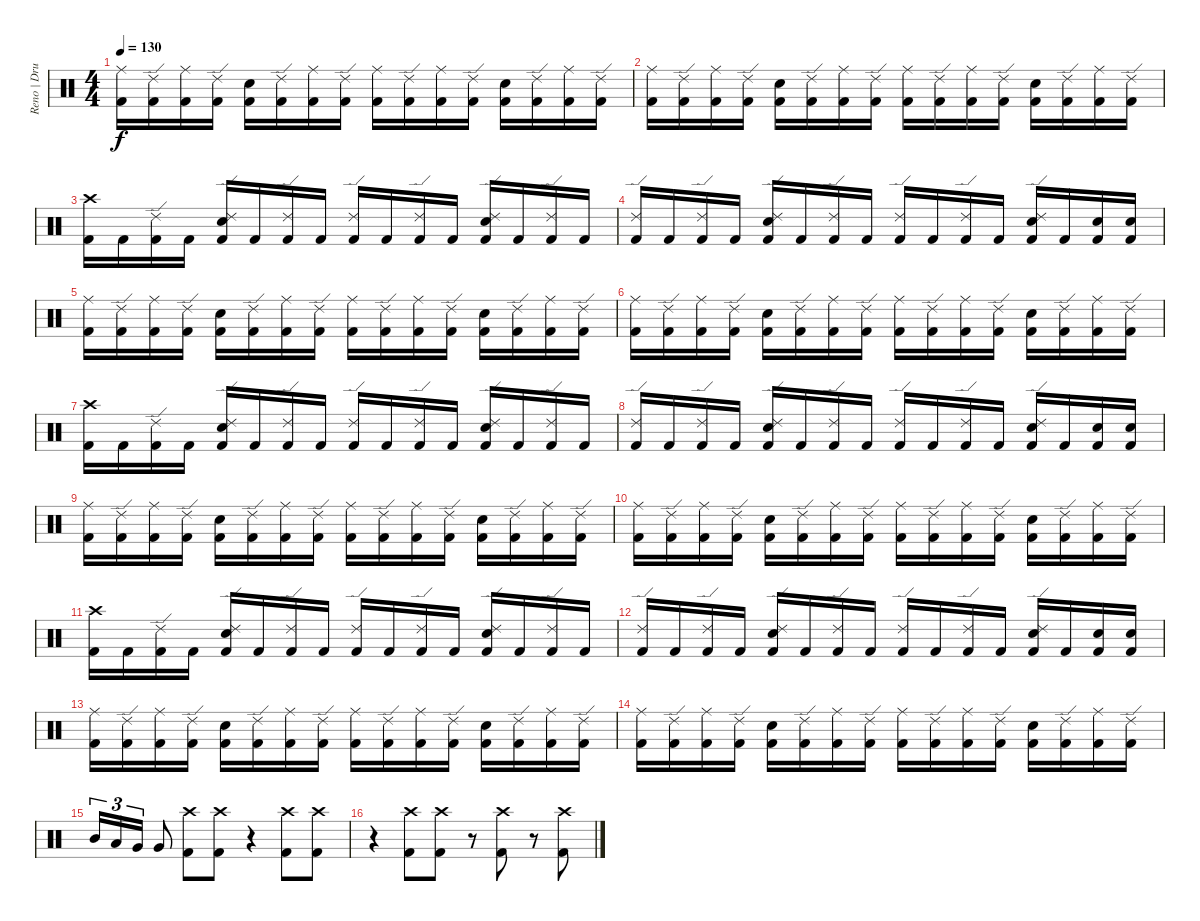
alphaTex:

\track ("Reno | Drums" "Reno | Dru") {instrument percussion}
\staff {score}
\articulation defaults
\ts (4 4)
\tempo 130
\clef neutral
\ks c
("Ride (middle)" "Kick (hit) 2").16{dy f} ("Ride (edge) 2" "Kick (hit) 2").16 ("Ride (middle)" "Kick (hit) 2").16 ("Ride (edge) 2" "Kick (hit) 2").16 ("Electric Snare (hit)" "Kick (hit) 2").16 ("Ride (edge) 2" "Kick (hit) 2").16 ("Ride (middle)" "Kick (hit) 2").16 ("Ride (edge) 2" "Kick (hit) 2").16 ("Ride (middle)" "Kick (hit) 2").16 ("Ride (edge) 2" "Kick (hit) 2").16 ("Ride (middle)" "Kick (hit) 2").16 ("Ride (edge) 2" "Kick (hit) 2").16 ("Electric Snare (hit)" "Kick (hit) 2").16 ("Ride (edge) 2" "Kick (hit) 2").16 ("Ride (middle)" "Kick (hit) 2").16 ("Ride (edge) 2" "Kick (hit) 2").16 |
("Ride (middle)" "Kick (hit) 2").16 ("Ride (edge) 2" "Kick (hit) 2").16 ("Ride (middle)" "Kick (hit) 2").16 ("Ride (edge) 2" "Kick (hit) 2").16 ("Electric Snare (hit)" "Kick (hit) 2").16 ("Ride (edge) 2" "Kick (hit) 2").16 ("Ride (middle)" "Kick (hit) 2").16 ("Ride (edge) 2" "Kick (hit) 2").16 ("Ride (middle)" "Kick (hit) 2").16 ("Ride (edge) 2" "Kick (hit) 2").16 ("Ride (middle)" "Kick (hit) 2").16 ("Ride (edge) 2" "Kick (hit) 2").16 ("Electric Snare (hit)" "Kick (hit) 2").16 ("Ride (edge) 2" "Kick (hit) 2").16 ("Ride (middle)" "Kick (hit) 2").16 ("Ride (edge) 2" "Kick (hit) 2").16 |
("Crash high (hit)" "Kick (hit) 2").16 "Kick (hit) 2".16 ("Ride (edge) 2" "Kick (hit) 2").16 "Kick (hit) 2".16 ("Ride (edge) 2" "Electric Snare (hit)" "Kick (hit) 2").16 "Kick (hit) 2".16 ("Ride (edge) 2" "Kick (hit) 2").16 "Kick (hit) 2".16 ("Ride (edge) 2" "Kick (hit) 2").16 "Kick (hit) 2".16 ("Ride (edge) 2" "Kick (hit) 2").16 "Kick (hit) 2".16 ("Ride (edge) 2" "Electric Snare (hit)" "Kick (hit) 2").16 "Kick (hit) 2".16 ("Ride (edge) 2" "Kick (hit) 2").16 "Kick (hit) 2".16 |
("Ride (edge) 2" "Kick (hit) 2").16 "Kick (hit) 2".16 ("Ride (edge) 2" "Kick (hit) 2").16 "Kick (hit) 2".16 ("Ride (edge) 2" "Electric Snare (hit)" "Kick (hit) 2").16 "Kick (hit) 2".16 ("Ride (edge) 2" "Kick (hit) 2").16 "Kick (hit) 2".16 ("Ride (edge) 2" "Kick (hit) 2").16 "Kick (hit) 2".16 ("Ride (edge) 2" "Kick (hit) 2").16 "Kick (hit) 2".16 ("Ride (edge) 2" "Electric Snare (hit)" "Kick (hit) 2").16 "Kick (hit) 2".16 ("Electric Snare (hit)" "Kick (hit) 2").16 ("Electric Snare (hit)" "Kick (hit) 2").16 |
("Ride (middle)" "Kick (hit) 2").16 ("Ride (edge) 2" "Kick (hit) 2").16 ("Ride (middle)" "Kick (hit) 2").16 ("Ride (edge) 2" "Kick (hit) 2").16 ("Electric Snare (hit)" "Kick (hit) 2").16 ("Ride (edge) 2" "Kick (hit) 2").16 ("Ride (middle)" "Kick (hit) 2").16 ("Ride (edge) 2" "Kick (hit) 2").16 ("Ride (middle)" "Kick (hit) 2").16 ("Ride (edge) 2" "Kick (hit) 2").16 ("Ride (middle)" "Kick (hit) 2").16 ("Ride (edge) 2" "Kick (hit) 2").16 ("Electric Snare (hit)" "Kick (hit) 2").16 ("Ride (edge) 2" "Kick (hit) 2").16 ("Ride (middle)" "Kick (hit) 2").16 ("Ride (edge) 2" "Kick (hit) 2").16 |
("Ride (middle)" "Kick (hit) 2").16 ("Ride (edge) 2" "Kick (hit) 2").16 ("Ride (middle)" "Kick (hit) 2").16 ("Ride (edge) 2" "Kick (hit) 2").16 ("Electric Snare (hit)" "Kick (hit) 2").16 ("Ride (edge) 2" "Kick (hit) 2").16 ("Ride (middle)" "Kick (hit) 2").16 ("Ride (edge) 2" "Kick (hit) 2").16 ("Ride (middle)" "Kick (hit) 2").16 ("Ride (edge) 2" "Kick (hit) 2").16 ("Ride (middle)" "Kick (hit) 2").16 ("Ride (edge) 2" "Kick (hit) 2").16 ("Electric Snare (hit)" "Kick (hit) 2").16 ("Ride (edge) 2" "Kick (hit) 2").16 ("Ride (middle)" "Kick (hit) 2").16 ("Ride (edge) 2" "Kick (hit) 2").16 |
("Crash high (hit)" "Kick (hit) 2").16 "Kick (hit) 2".16 ("Ride (edge) 2" "Kick (hit) 2").16 "Kick (hit) 2".16 ("Ride (edge) 2" "Electric Snare (hit)" "Kick (hit) 2").16 "Kick (hit) 2".16 ("Ride (edge) 2" "Kick (hit) 2").16 "Kick (hit) 2".16 ("Ride (edge) 2" "Kick (hit) 2").16 "Kick (hit) 2".16 ("Ride (edge) 2" "Kick (hit) 2").16 "Kick (hit) 2".16 ("Ride (edge) 2" "Electric Snare (hit)" "Kick (hit) 2").16 "Kick (hit) 2".16 ("Ride (edge) 2" "Kick (hit) 2").16 "Kick (hit) 2".16 |
("Ride (edge) 2" "Kick (hit) 2").16 "Kick (hit) 2".16 ("Ride (edge) 2" "Kick (hit) 2").16 "Kick (hit) 2".16 ("Ride (edge) 2" "Electric Snare (hit)" "Kick (hit) 2").16 "Kick (hit) 2".16 ("Ride (edge) 2" "Kick (hit) 2").16 "Kick (hit) 2".16 ("Ride (edge) 2" "Kick (hit) 2").16 "Kick (hit) 2".16 ("Ride (edge) 2" "Kick (hit) 2").16 "Kick (hit) 2".16 ("Ride (edge) 2" "Electric Snare (hit)" "Kick (hit) 2").16 "Kick (hit) 2".16 ("Electric Snare (hit)" "Kick (hit) 2").16 ("Electric Snare (hit)" "Kick (hit) 2").16 |
("Ride (middle)" "Kick (hit) 2").16 ("Ride (edge) 2" "Kick (hit) 2").16 ("Ride (middle)" "Kick (hit) 2").16 ("Ride (edge) 2" "Kick (hit) 2").16 ("Electric Snare (hit)" "Kick (hit) 2").16 ("Ride (edge) 2" "Kick (hit) 2").16 ("Ride (middle)" "Kick (hit) 2").16 ("Ride (edge) 2" "Kick (hit) 2").16 ("Ride (middle)" "Kick (hit) 2").16 ("Ride (edge) 2" "Kick (hit) 2").16 ("Ride (middle)" "Kick (hit) 2").16 ("Ride (edge) 2" "Kick (hit) 2").16 ("Electric Snare (hit)" "Kick (hit) 2").16 ("Ride (edge) 2" "Kick (hit) 2").16 ("Ride (middle)" "Kick (hit) 2").16 ("Ride (edge) 2" "Kick (hit) 2").16 |
("Ride (middle)" "Kick (hit) 2").16 ("Ride (edge) 2" "Kick (hit) 2").16 ("Ride (middle)" "Kick (hit) 2").16 ("Ride (edge) 2" "Kick (hit) 2").16 ("Electric Snare (hit)" "Kick (hit) 2").16 ("Ride (edge) 2" "Kick (hit) 2").16 ("Ride (middle)" "Kick (hit) 2").16 ("Ride (edge) 2" "Kick (hit) 2").16 ("Ride (middle)" "Kick (hit) 2").16 ("Ride (edge) 2" "Kick (hit) 2").16 ("Ride (middle)" "Kick (hit) 2").16 ("Ride (edge) 2" "Kick (hit) 2").16 ("Electric Snare (hit)" "Kick (hit) 2").16 ("Ride (edge) 2" "Kick (hit) 2").16 ("Ride (middle)" "Kick (hit) 2").16 ("Ride (edge) 2" "Kick (hit) 2").16 |
("Crash high (hit)" "Kick (hit) 2").16 "Kick (hit) 2".16 ("Ride (edge) 2" "Kick (hit) 2").16 "Kick (hit) 2".16 ("Ride (edge) 2" "Electric Snare (hit)" "Kick (hit) 2").16 "Kick (hit) 2".16 ("Ride (edge) 2" "Kick (hit) 2").16 "Kick (hit) 2".16 ("Ride (edge) 2" "Kick (hit) 2").16 "Kick (hit) 2".16 ("Ride (edge) 2" "Kick (hit) 2").16 "Kick (hit) 2".16 ("Ride (edge) 2" "Electric Snare (hit)" "Kick (hit) 2").16 "Kick (hit) 2".16 ("Ride (edge) 2" "Kick (hit) 2").16 "Kick (hit) 2".16 |
("Ride (edge) 2" "Kick (hit) 2").16 "Kick (hit) 2".16 ("Ride (edge) 2" "Kick (hit) 2").16 "Kick (hit) 2".16 ("Ride (edge) 2" "Electric Snare (hit)" "Kick (hit) 2").16 "Kick (hit) 2".16 ("Ride (edge) 2" "Kick (hit) 2").16 "Kick (hit) 2".16 ("Ride (edge) 2" "Kick (hit) 2").16 "Kick (hit) 2".16 ("Ride (edge) 2" "Kick (hit) 2").16 "Kick (hit) 2".16 ("Ride (edge) 2" "Electric Snare (hit)" "Kick (hit) 2").16 "Kick (hit) 2".16 ("Electric Snare (hit)" "Kick (hit) 2").16 ("Electric Snare (hit)" "Kick (hit) 2").16 |
("Ride (middle)" "Kick (hit) 2").16 ("Ride (edge) 2" "Kick (hit) 2").16 ("Ride (middle)" "Kick (hit) 2").16 ("Ride (edge) 2" "Kick (hit) 2").16 ("Electric Snare (hit)" "Kick (hit) 2").16 ("Ride (edge) 2" "Kick (hit) 2").16 ("Ride (middle)" "Kick (hit) 2").16 ("Ride (edge) 2" "Kick (hit) 2").16 ("Ride (middle)" "Kick (hit) 2").16 ("Ride (edge) 2" "Kick (hit) 2").16 ("Ride (middle)" "Kick (hit) 2").16 ("Ride (edge) 2" "Kick (hit) 2").16 ("Electric Snare (hit)" "Kick (hit) 2").16 ("Ride (edge) 2" "Kick (hit) 2").16 ("Ride (middle)" "Kick (hit) 2").16 ("Ride (edge) 2" "Kick (hit) 2").16 |
("Ride (middle)" "Kick (hit) 2").16 ("Ride (edge) 2" "Kick (hit) 2").16 ("Ride (middle)" "Kick (hit) 2").16 ("Ride (edge) 2" "Kick (hit) 2").16 ("Electric Snare (hit)" "Kick (hit) 2").16 ("Ride (edge) 2" "Kick (hit) 2").16 ("Ride (middle)" "Kick (hit) 2").16 ("Ride (edge) 2" "Kick (hit) 2").16 ("Ride (middle)" "Kick (hit) 2").16 ("Ride (edge) 2" "Kick (hit) 2").16 ("Ride (middle)" "Kick (hit) 2").16 ("Ride (edge) 2" "Kick (hit) 2").16 ("Electric Snare (hit)" "Kick (hit) 2").16 ("Ride (edge) 2" "Kick (hit) 2").16 ("Ride (middle)" "Kick (hit) 2").16 ("Ride (edge) 2" "Kick (hit) 2").16 |
"Mid Tom (hit)".16{tu (3 2)} "Low Tom (hit)".16{tu (3 2)} "Very Low Tom (hit)".16{tu (3 2)} "Very Low Tom (hit)".8 ("Crash high (hit)" "Kick (hit) 2").8 ("Crash high (hit)" "Kick (hit) 2").8 r.4 ("Crash high (hit)" "Kick (hit) 2").8 ("Crash high (hit)" "Kick (hit) 2").8 |
r.4 ("Crash high (hit)" "Kick (hit) 2").8 ("Crash high (hit)" "Kick (hit) 2").8 r.8 ("Crash high (hit)" "Kick (hit) 2").8 r.8 ("Crash high (hit)" "Kick (hit) 2").8
